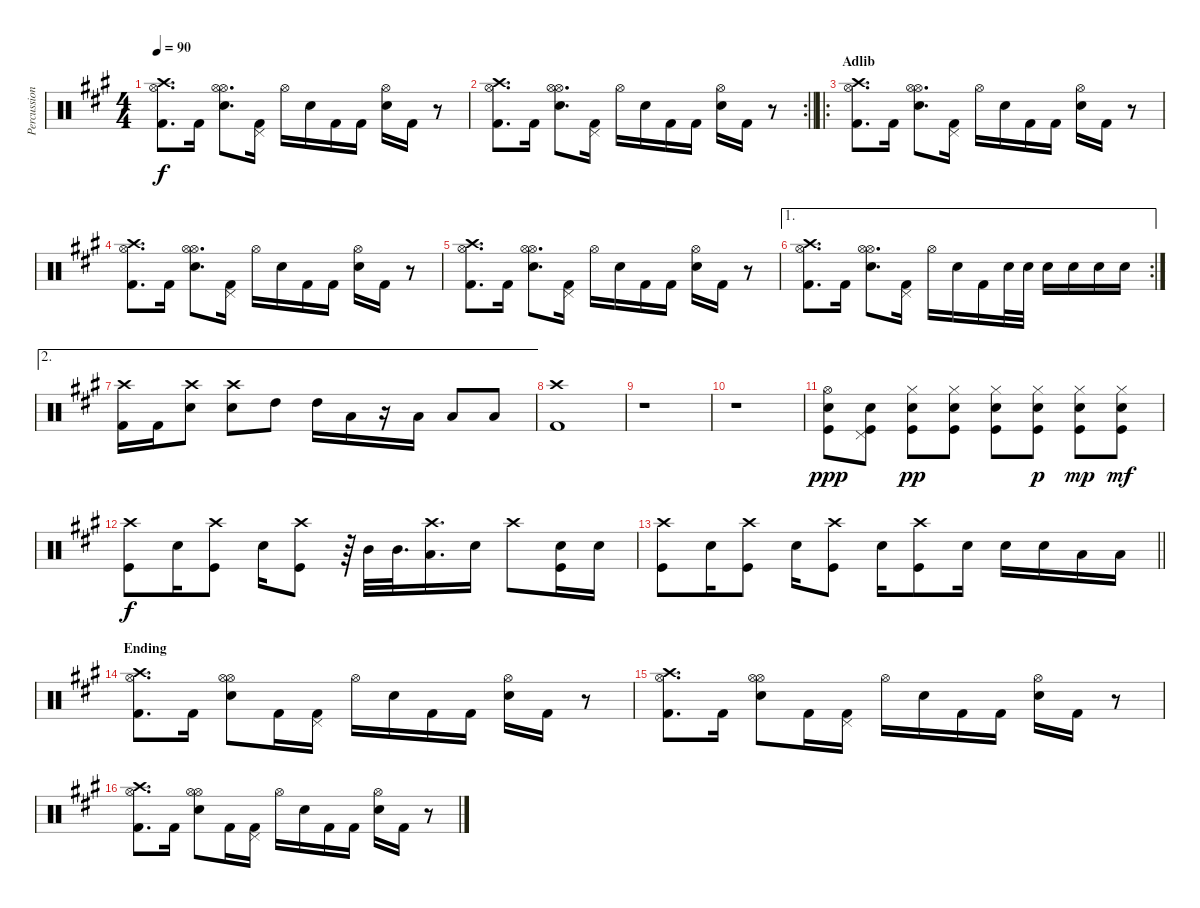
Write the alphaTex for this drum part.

\track ("Percussion" "Percussion") {instrument percussion}
\staff {score}
\articulation defaults
\ts (4 4)
\tempo 90
\clef neutral
\ks a
("Hi-Hat (open)" "Crash high (hit)" "Kick (hit) 2").8{d dy f} "Kick (hit) 2".16 ("Hi-Hat (open)" "Electric Snare (hit)" "Hi-Hat (open)").8{d} ("Pedal Hi-Hat (hit)" "Kick (hit) 2").16 "Hi-Hat (open)".16 "Electric Snare (hit)".16 "Kick (hit) 2".16 "Kick (hit) 2".16 ("Hi-Hat (open)" "Electric Snare (hit)").16 "Kick (hit) 2".16 r.8 |
\rc 2
\barLineRight lightlight
("Hi-Hat (open)" "Crash high (hit)" "Kick (hit) 2").8{d} "Kick (hit) 2".16 ("Hi-Hat (open)" "Electric Snare (hit)" "Hi-Hat (open)").8{d} ("Pedal Hi-Hat (hit)" "Kick (hit) 2").16 "Hi-Hat (open)".16 "Electric Snare (hit)".16 "Kick (hit) 2".16 "Kick (hit) 2".16 ("Hi-Hat (open)" "Electric Snare (hit)").16 "Kick (hit) 2".16 r.8 |
\ro
\section ("" "Adlib")
("Hi-Hat (open)" "Crash high (hit)" "Kick (hit) 2").8{d} "Kick (hit) 2".16 ("Hi-Hat (open)" "Electric Snare (hit)" "Hi-Hat (open)").8{d} ("Pedal Hi-Hat (hit)" "Kick (hit) 2").16 "Hi-Hat (open)".16 "Electric Snare (hit)".16 "Kick (hit) 2".16 "Kick (hit) 2".16 ("Hi-Hat (open)" "Electric Snare (hit)").16 "Kick (hit) 2".16 r.8 |
("Hi-Hat (open)" "Crash high (hit)" "Kick (hit) 2").8{d} "Kick (hit) 2".16 ("Hi-Hat (open)" "Electric Snare (hit)" "Hi-Hat (open)").8{d} ("Pedal Hi-Hat (hit)" "Kick (hit) 2").16 "Hi-Hat (open)".16 "Electric Snare (hit)".16 "Kick (hit) 2".16 "Kick (hit) 2".16 ("Hi-Hat (open)" "Electric Snare (hit)").16 "Kick (hit) 2".16 r.8 |
("Hi-Hat (open)" "Crash high (hit)" "Kick (hit) 2").8{d} "Kick (hit) 2".16 ("Hi-Hat (open)" "Electric Snare (hit)" "Hi-Hat (open)").8{d} ("Pedal Hi-Hat (hit)" "Kick (hit) 2").16 "Hi-Hat (open)".16 "Electric Snare (hit)".16 "Kick (hit) 2".16 "Kick (hit) 2".16 ("Hi-Hat (open)" "Electric Snare (hit)").16 "Kick (hit) 2".16 r.8 |
\ae 1
\rc 2
("Hi-Hat (open)" "Crash high (hit)" "Kick (hit) 2").8{d} "Kick (hit) 2".16 ("Hi-Hat (open)" "Electric Snare (hit)" "Hi-Hat (open)").8{d} ("Pedal Hi-Hat (hit)" "Kick (hit) 2").16 "Hi-Hat (open)".16 "Electric Snare (hit)".16 "Kick (hit) 2".16 "Electric Snare (hit)".32 "Electric Snare (hit)".32 "Electric Snare (hit)".16 "Electric Snare (hit)".16 "Electric Snare (hit)".16 "Electric Snare (hit)".16 |
\ae 2
("Crash high (hit)" "Kick (hit) 2").16 "Kick (hit) 2".16 ("Crash high (hit)" "Electric Snare (hit)").8 ("Crash high (hit)" "Electric Snare (hit)").8 "High Tom (hit)".8 "High Tom (hit)".16 "Low Tom (hit)".16 r.16 "Low Tom (hit)".16 "Low Tom (hit)".8 "Low Floor Tom (hit)".8 |
("Crash high (hit)" "Kick (hit) 2").1 |
r.1 |
r.1 |
("Kick (hit)" "Hi-Hat (open)" "Electric Snare (hit)").8{dy ppp} ("Kick (hit)" "Pedal Hi-Hat (hit)" "Electric Snare (hit)").8 ("Kick (hit)" "Hi-Hat (closed)" "Electric Snare (hit)").8{dy pp} ("Kick (hit)" "Hi-Hat (closed)" "Electric Snare (hit)").8 ("Kick (hit)" "Hi-Hat (closed)" "Electric Snare (hit)").8{volume 13} ("Kick (hit)" "Hi-Hat (closed)" "Electric Snare (hit)").8{dy p} ("Kick (hit)" "Hi-Hat (closed)" "Electric Snare (hit)").8{dy mp} ("Kick (hit)" "Hi-Hat (closed)" "Electric Snare (hit)").8{dy mf} |
("Crash high (hit)" "Kick (hit)").8{dy f} "Electric Snare (hit)".16 ("Crash high (hit)" "Kick (hit)").8 "Electric Snare (hit)".16 ("Crash high (hit)" "Kick (hit)").8 r.64 "Mid Tom (hit)".32 "Mid Tom (hit)".32{d} ("Crash high (hit)" "Low Floor Tom (hit)").16{d} "Electric Snare (hit)".16 "Crash high (hit)".8 ("Electric Snare (hit)" "Kick (hit)").16 "Electric Snare (hit)".16 |
\barLineRight lightlight
("Crash high (hit)" "Kick (hit)").8 "Electric Snare (hit)".16 ("Crash high (hit)" "Kick (hit)").8 "Electric Snare (hit)".16 ("Crash high (hit)" "Kick (hit)").8 "Electric Snare (hit)".16 ("Crash high (hit)" "Kick (hit)").8 "Electric Snare (hit)".16 "Electric Snare (hit)".16 "Electric Snare (hit)".16 "Low Tom (hit)".16 "Low Tom (hit)".16 |
\section ("" "Ending")
("Hi-Hat (open)" "Crash high (hit)" "Kick (hit) 2").8{d} "Kick (hit) 2".16 ("Hi-Hat (open)" "Electric Snare (hit)" "Hi-Hat (open)").8 "Kick (hit) 2".16 ("Pedal Hi-Hat (hit)" "Kick (hit) 2").16 "Hi-Hat (open)".16 "Electric Snare (hit)".16 "Kick (hit) 2".16 "Kick (hit) 2".16 ("Hi-Hat (open)" "Electric Snare (hit)").16 "Kick (hit) 2".16 r.8 |
("Hi-Hat (open)" "Crash high (hit)" "Kick (hit) 2").8{d} "Kick (hit) 2".16 ("Hi-Hat (open)" "Electric Snare (hit)" "Hi-Hat (open)").8 "Kick (hit) 2".16 ("Pedal Hi-Hat (hit)" "Kick (hit) 2").16 "Hi-Hat (open)".16 "Electric Snare (hit)".16 "Kick (hit) 2".16 "Kick (hit) 2".16 ("Hi-Hat (open)" "Electric Snare (hit)").16 "Kick (hit) 2".16 r.8 |
("Hi-Hat (open)" "Crash high (hit)" "Kick (hit) 2").8{d} "Kick (hit) 2".16 ("Hi-Hat (open)" "Electric Snare (hit)" "Hi-Hat (open)").8 "Kick (hit) 2".16 ("Pedal Hi-Hat (hit)" "Kick (hit) 2").16 "Hi-Hat (open)".16 "Electric Snare (hit)".16 "Kick (hit) 2".16 "Kick (hit) 2".16 ("Hi-Hat (open)" "Electric Snare (hit)").16 "Kick (hit) 2".16 r.8
